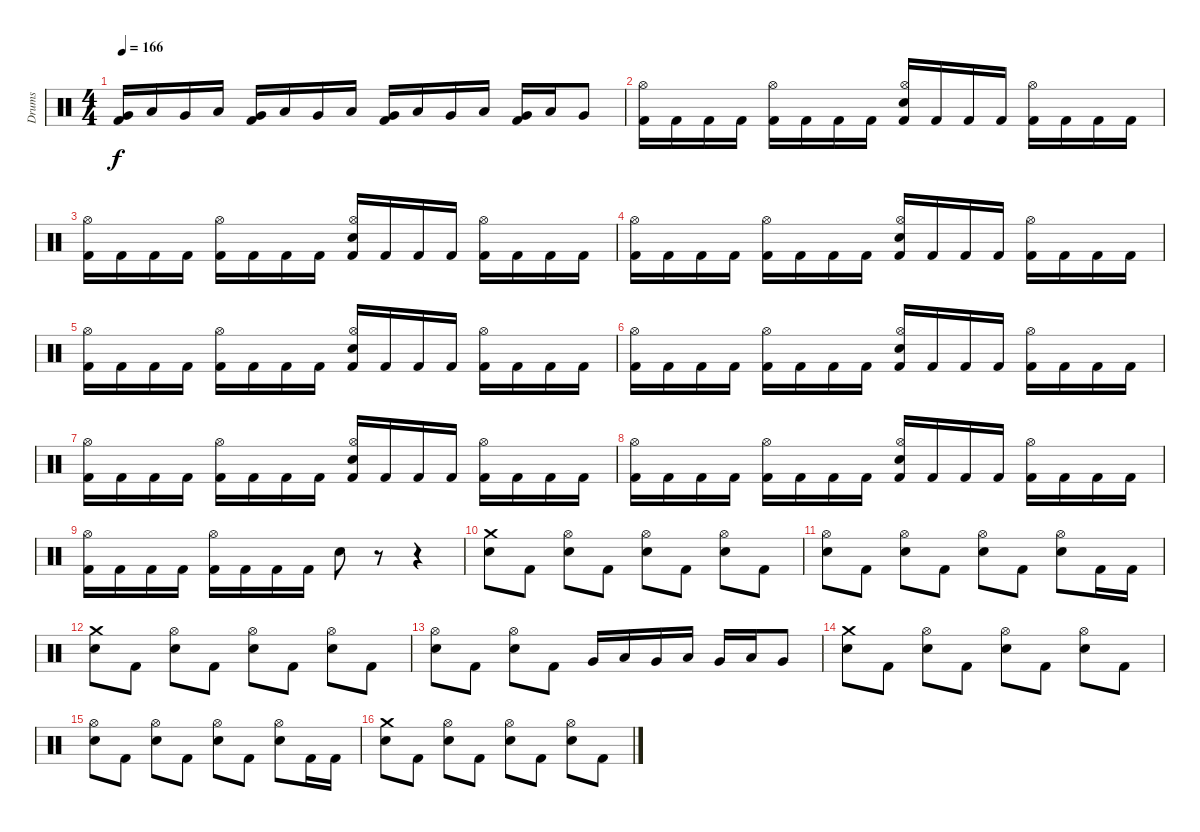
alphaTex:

\track ("Drums" "Drums") {instrument percussion}
\staff {score}
\articulation defaults
\ts (4 4)
\tempo 166
\clef neutral
\ks c
("Very Low Tom (hit)" "Kick (hit) 2").16{dy f} "Low Tom (hit)".16 "Very Low Tom (hit)".16 "Low Tom (hit)".16 ("Very Low Tom (hit)" "Kick (hit) 2").16 "Low Tom (hit)".16 "Very Low Tom (hit)".16 "Low Tom (hit)".16 ("Very Low Tom (hit)" "Kick (hit) 2").16 "Low Tom (hit)".16 "Very Low Tom (hit)".16 "Low Tom (hit)".16 ("Very Low Tom (hit)" "Kick (hit) 2").16 "Low Tom (hit)".16 "Very Low Tom (hit)".8 |
("Hi-Hat (open)" "Kick (hit) 2").16 "Kick (hit) 2".16 "Kick (hit) 2".16 "Kick (hit) 2".16 ("Hi-Hat (open)" "Kick (hit) 2").16 "Kick (hit) 2".16 "Kick (hit) 2".16 "Kick (hit) 2".16 ("Hi-Hat (open)" "Snare (hit) 2" "Kick (hit) 2").16 "Kick (hit) 2".16 "Kick (hit) 2".16 "Kick (hit) 2".16 ("Hi-Hat (open)" "Kick (hit) 2").16 "Kick (hit) 2".16 "Kick (hit) 2".16 "Kick (hit) 2".16 |
("Hi-Hat (open)" "Kick (hit) 2").16 "Kick (hit) 2".16 "Kick (hit) 2".16 "Kick (hit) 2".16 ("Hi-Hat (open)" "Kick (hit) 2").16 "Kick (hit) 2".16 "Kick (hit) 2".16 "Kick (hit) 2".16 ("Hi-Hat (open)" "Snare (hit) 2" "Kick (hit) 2").16 "Kick (hit) 2".16 "Kick (hit) 2".16 "Kick (hit) 2".16 ("Hi-Hat (open)" "Kick (hit) 2").16 "Kick (hit) 2".16 "Kick (hit) 2".16 "Kick (hit) 2".16 |
("Hi-Hat (open)" "Kick (hit) 2").16 "Kick (hit) 2".16 "Kick (hit) 2".16 "Kick (hit) 2".16 ("Hi-Hat (open)" "Kick (hit) 2").16 "Kick (hit) 2".16 "Kick (hit) 2".16 "Kick (hit) 2".16 ("Hi-Hat (open)" "Snare (hit) 2" "Kick (hit) 2").16 "Kick (hit) 2".16 "Kick (hit) 2".16 "Kick (hit) 2".16 ("Hi-Hat (open)" "Kick (hit) 2").16 "Kick (hit) 2".16 "Kick (hit) 2".16 "Kick (hit) 2".16 |
("Hi-Hat (open)" "Kick (hit) 2").16 "Kick (hit) 2".16 "Kick (hit) 2".16 "Kick (hit) 2".16 ("Hi-Hat (open)" "Kick (hit) 2").16 "Kick (hit) 2".16 "Kick (hit) 2".16 "Kick (hit) 2".16 ("Hi-Hat (open)" "Snare (hit) 2" "Kick (hit) 2").16 "Kick (hit) 2".16 "Kick (hit) 2".16 "Kick (hit) 2".16 ("Hi-Hat (open)" "Kick (hit) 2").16 "Kick (hit) 2".16 "Kick (hit) 2".16 "Kick (hit) 2".16 |
("Hi-Hat (open)" "Kick (hit) 2").16 "Kick (hit) 2".16 "Kick (hit) 2".16 "Kick (hit) 2".16 ("Hi-Hat (open)" "Kick (hit) 2").16 "Kick (hit) 2".16 "Kick (hit) 2".16 "Kick (hit) 2".16 ("Hi-Hat (open)" "Snare (hit) 2" "Kick (hit) 2").16 "Kick (hit) 2".16 "Kick (hit) 2".16 "Kick (hit) 2".16 ("Hi-Hat (open)" "Kick (hit) 2").16 "Kick (hit) 2".16 "Kick (hit) 2".16 "Kick (hit) 2".16 |
("Hi-Hat (open)" "Kick (hit) 2").16 "Kick (hit) 2".16 "Kick (hit) 2".16 "Kick (hit) 2".16 ("Hi-Hat (open)" "Kick (hit) 2").16 "Kick (hit) 2".16 "Kick (hit) 2".16 "Kick (hit) 2".16 ("Hi-Hat (open)" "Snare (hit) 2" "Kick (hit) 2").16 "Kick (hit) 2".16 "Kick (hit) 2".16 "Kick (hit) 2".16 ("Hi-Hat (open)" "Kick (hit) 2").16 "Kick (hit) 2".16 "Kick (hit) 2".16 "Kick (hit) 2".16 |
("Hi-Hat (open)" "Kick (hit) 2").16 "Kick (hit) 2".16 "Kick (hit) 2".16 "Kick (hit) 2".16 ("Hi-Hat (open)" "Kick (hit) 2").16 "Kick (hit) 2".16 "Kick (hit) 2".16 "Kick (hit) 2".16 ("Hi-Hat (open)" "Snare (hit) 2" "Kick (hit) 2").16 "Kick (hit) 2".16 "Kick (hit) 2".16 "Kick (hit) 2".16 ("Hi-Hat (open)" "Kick (hit) 2").16 "Kick (hit) 2".16 "Kick (hit) 2".16 "Kick (hit) 2".16 |
("Hi-Hat (open)" "Kick (hit) 2").16 "Kick (hit) 2".16 "Kick (hit) 2".16 "Kick (hit) 2".16 ("Hi-Hat (open)" "Kick (hit) 2").16 "Kick (hit) 2".16 "Kick (hit) 2".16 "Kick (hit) 2".16 "Snare (hit) 2".8 r.8 r.4 |
("Crash medium (hit)" "Snare (hit) 2").8 "Kick (hit) 2".8 ("Hi-Hat (open)" "Snare (hit) 2").8 "Kick (hit) 2".8 ("Hi-Hat (open)" "Snare (hit) 2").8 "Kick (hit) 2".8 ("Hi-Hat (open)" "Snare (hit) 2").8 "Kick (hit) 2".8 |
("Hi-Hat (open)" "Snare (hit) 2").8 "Kick (hit) 2".8 ("Hi-Hat (open)" "Snare (hit) 2").8 "Kick (hit) 2".8 ("Hi-Hat (open)" "Snare (hit) 2").8 "Kick (hit) 2".8 ("Hi-Hat (open)" "Snare (hit) 2").8 "Kick (hit) 2".16 "Kick (hit) 2".16 |
("Crash medium (hit)" "Snare (hit) 2").8 "Kick (hit) 2".8 ("Hi-Hat (open)" "Snare (hit) 2").8 "Kick (hit) 2".8 ("Hi-Hat (open)" "Snare (hit) 2").8 "Kick (hit) 2".8 ("Hi-Hat (open)" "Snare (hit) 2").8 "Kick (hit) 2".8 |
("Hi-Hat (open)" "Snare (hit) 2").8 "Kick (hit) 2".8 ("Hi-Hat (open)" "Snare (hit) 2").8 "Kick (hit) 2".8 "Very Low Tom (hit)".16 "Low Tom (hit)".16 "Very Low Tom (hit)".16 "Low Tom (hit)".16 "Very Low Tom (hit)".16 "Low Tom (hit)".16 "Very Low Tom (hit)".8 |
("Crash medium (hit)" "Snare (hit) 2").8 "Kick (hit) 2".8 ("Hi-Hat (open)" "Snare (hit) 2").8 "Kick (hit) 2".8 ("Hi-Hat (open)" "Snare (hit) 2").8 "Kick (hit) 2".8 ("Hi-Hat (open)" "Snare (hit) 2").8 "Kick (hit) 2".8 |
("Hi-Hat (open)" "Snare (hit) 2").8 "Kick (hit) 2".8 ("Hi-Hat (open)" "Snare (hit) 2").8 "Kick (hit) 2".8 ("Hi-Hat (open)" "Snare (hit) 2").8 "Kick (hit) 2".8 ("Hi-Hat (open)" "Snare (hit) 2").8 "Kick (hit) 2".16 "Kick (hit) 2".16 |
("Crash medium (hit)" "Snare (hit) 2").8 "Kick (hit) 2".8 ("Hi-Hat (open)" "Snare (hit) 2").8 "Kick (hit) 2".8 ("Hi-Hat (open)" "Snare (hit) 2").8 "Kick (hit) 2".8 ("Hi-Hat (open)" "Snare (hit) 2").8 "Kick (hit) 2".8
